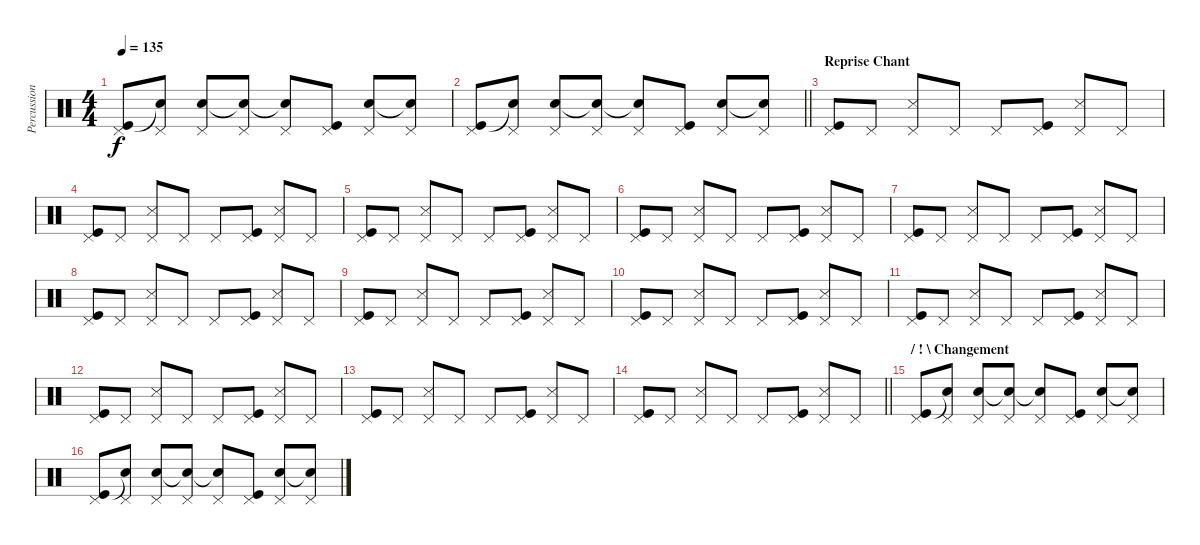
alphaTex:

\track ("Percussions" "Percussion") {instrument percussion}
\staff {score}
\articulation defaults
\ts (4 4)
\tempo 135
\clef neutral
\ks c
("Pedal Hi-Hat (hit)" "Kick (hit)").8{dy f} ("Pedal Hi-Hat (hit)" "Snare (hit)"{t}).8 ("Pedal Hi-Hat (hit)" "Electric Snare (hit)").8 ("Pedal Hi-Hat (hit)" "Snare (hit)"{t}).8 ("Pedal Hi-Hat (hit)" "Snare (hit)"{t}).8 ("Pedal Hi-Hat (hit)" "Kick (hit)").8 ("Pedal Hi-Hat (hit)" "Electric Snare (hit)").8 ("Pedal Hi-Hat (hit)" "Snare (hit)"{t}).8 |
\barLineRight lightlight
("Pedal Hi-Hat (hit)" "Kick (hit)").8 ("Pedal Hi-Hat (hit)" "Snare (hit)"{t}).8 ("Pedal Hi-Hat (hit)" "Electric Snare (hit)").8 ("Pedal Hi-Hat (hit)" "Snare (hit)"{t}).8 ("Pedal Hi-Hat (hit)" "Snare (hit)"{t}).8 ("Pedal Hi-Hat (hit)" "Kick (hit)").8 ("Pedal Hi-Hat (hit)" "Electric Snare (hit)").8 ("Pedal Hi-Hat (hit)" "Snare (hit)"{t}).8 |
\section ("" "Reprise Chant")
("Pedal Hi-Hat (hit)" "Kick (hit)").8 "Pedal Hi-Hat (hit)".8 ("Pedal Hi-Hat (hit)" "Snare (side stick) 3").8 "Pedal Hi-Hat (hit)".8 "Pedal Hi-Hat (hit)".8 ("Pedal Hi-Hat (hit)" "Kick (hit)").8 ("Pedal Hi-Hat (hit)" "Snare (side stick) 3").8 "Pedal Hi-Hat (hit)".8 |
("Pedal Hi-Hat (hit)" "Kick (hit)").8 "Pedal Hi-Hat (hit)".8 ("Pedal Hi-Hat (hit)" "Snare (side stick) 3").8 "Pedal Hi-Hat (hit)".8 "Pedal Hi-Hat (hit)".8 ("Pedal Hi-Hat (hit)" "Kick (hit)").8 ("Pedal Hi-Hat (hit)" "Snare (side stick) 3").8 "Pedal Hi-Hat (hit)".8 |
("Pedal Hi-Hat (hit)" "Kick (hit)").8 "Pedal Hi-Hat (hit)".8 ("Pedal Hi-Hat (hit)" "Snare (side stick) 3").8 "Pedal Hi-Hat (hit)".8 "Pedal Hi-Hat (hit)".8 ("Pedal Hi-Hat (hit)" "Kick (hit)").8 ("Pedal Hi-Hat (hit)" "Snare (side stick) 3").8 "Pedal Hi-Hat (hit)".8 |
("Pedal Hi-Hat (hit)" "Kick (hit)").8 "Pedal Hi-Hat (hit)".8 ("Pedal Hi-Hat (hit)" "Snare (side stick) 3").8 "Pedal Hi-Hat (hit)".8 "Pedal Hi-Hat (hit)".8 ("Pedal Hi-Hat (hit)" "Kick (hit)").8 ("Pedal Hi-Hat (hit)" "Snare (side stick) 3").8 "Pedal Hi-Hat (hit)".8 |
("Pedal Hi-Hat (hit)" "Kick (hit)").8 "Pedal Hi-Hat (hit)".8 ("Pedal Hi-Hat (hit)" "Snare (side stick) 3").8 "Pedal Hi-Hat (hit)".8 "Pedal Hi-Hat (hit)".8 ("Pedal Hi-Hat (hit)" "Kick (hit)").8 ("Pedal Hi-Hat (hit)" "Snare (side stick) 3").8 "Pedal Hi-Hat (hit)".8 |
("Pedal Hi-Hat (hit)" "Kick (hit)").8 "Pedal Hi-Hat (hit)".8 ("Pedal Hi-Hat (hit)" "Snare (side stick) 3").8 "Pedal Hi-Hat (hit)".8 "Pedal Hi-Hat (hit)".8 ("Pedal Hi-Hat (hit)" "Kick (hit)").8 ("Pedal Hi-Hat (hit)" "Snare (side stick) 3").8 "Pedal Hi-Hat (hit)".8 |
("Pedal Hi-Hat (hit)" "Kick (hit)").8 "Pedal Hi-Hat (hit)".8 ("Pedal Hi-Hat (hit)" "Snare (side stick) 3").8 "Pedal Hi-Hat (hit)".8 "Pedal Hi-Hat (hit)".8 ("Pedal Hi-Hat (hit)" "Kick (hit)").8 ("Pedal Hi-Hat (hit)" "Snare (side stick) 3").8 "Pedal Hi-Hat (hit)".8 |
("Pedal Hi-Hat (hit)" "Kick (hit)").8 "Pedal Hi-Hat (hit)".8 ("Pedal Hi-Hat (hit)" "Snare (side stick) 3").8 "Pedal Hi-Hat (hit)".8 "Pedal Hi-Hat (hit)".8 ("Pedal Hi-Hat (hit)" "Kick (hit)").8 ("Pedal Hi-Hat (hit)" "Snare (side stick) 3").8 "Pedal Hi-Hat (hit)".8 |
("Pedal Hi-Hat (hit)" "Kick (hit)").8 "Pedal Hi-Hat (hit)".8 ("Pedal Hi-Hat (hit)" "Snare (side stick) 3").8 "Pedal Hi-Hat (hit)".8 "Pedal Hi-Hat (hit)".8 ("Pedal Hi-Hat (hit)" "Kick (hit)").8 ("Pedal Hi-Hat (hit)" "Snare (side stick) 3").8 "Pedal Hi-Hat (hit)".8 |
("Pedal Hi-Hat (hit)" "Kick (hit)").8 "Pedal Hi-Hat (hit)".8 ("Pedal Hi-Hat (hit)" "Snare (side stick) 3").8 "Pedal Hi-Hat (hit)".8 "Pedal Hi-Hat (hit)".8 ("Pedal Hi-Hat (hit)" "Kick (hit)").8 ("Pedal Hi-Hat (hit)" "Snare (side stick) 3").8 "Pedal Hi-Hat (hit)".8 |
("Pedal Hi-Hat (hit)" "Kick (hit)").8 "Pedal Hi-Hat (hit)".8 ("Pedal Hi-Hat (hit)" "Snare (side stick) 3").8 "Pedal Hi-Hat (hit)".8 "Pedal Hi-Hat (hit)".8 ("Pedal Hi-Hat (hit)" "Kick (hit)").8 ("Pedal Hi-Hat (hit)" "Snare (side stick) 3").8 "Pedal Hi-Hat (hit)".8 |
\barLineRight lightlight
("Pedal Hi-Hat (hit)" "Kick (hit)").8 "Pedal Hi-Hat (hit)".8 ("Pedal Hi-Hat (hit)" "Snare (side stick) 3").8 "Pedal Hi-Hat (hit)".8 "Pedal Hi-Hat (hit)".8 ("Pedal Hi-Hat (hit)" "Kick (hit)").8 ("Pedal Hi-Hat (hit)" "Snare (side stick) 3").8 "Pedal Hi-Hat (hit)".8 |
\section ("" "/ ! \\ Changement")
("Pedal Hi-Hat (hit)" "Kick (hit)").8 ("Pedal Hi-Hat (hit)" "Snare (hit)"{t}).8 ("Pedal Hi-Hat (hit)" "Electric Snare (hit)").8 ("Pedal Hi-Hat (hit)" "Snare (hit)"{t}).8 ("Pedal Hi-Hat (hit)" "Snare (hit)"{t}).8 ("Pedal Hi-Hat (hit)" "Kick (hit)").8 ("Pedal Hi-Hat (hit)" "Electric Snare (hit)").8 ("Pedal Hi-Hat (hit)" "Snare (hit)"{t}).8 |
("Pedal Hi-Hat (hit)" "Kick (hit)").8 ("Pedal Hi-Hat (hit)" "Snare (hit)"{t}).8 ("Pedal Hi-Hat (hit)" "Electric Snare (hit)").8 ("Pedal Hi-Hat (hit)" "Snare (hit)"{t}).8 ("Pedal Hi-Hat (hit)" "Snare (hit)"{t}).8 ("Pedal Hi-Hat (hit)" "Kick (hit)").8 ("Pedal Hi-Hat (hit)" "Electric Snare (hit)").8 ("Pedal Hi-Hat (hit)" "Snare (hit)"{t}).8
